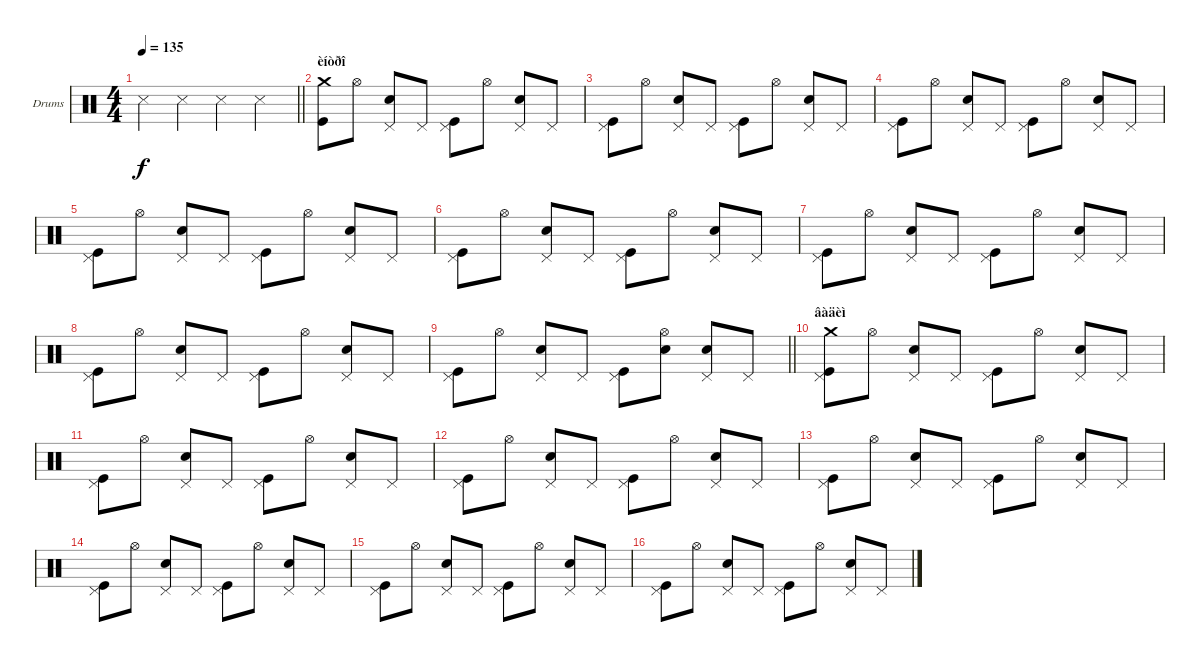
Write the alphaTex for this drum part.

\bracketExtendMode groupsimilarinstruments
\firstSystemTrackNameOrientation horizontal
\otherSystemsTrackNameOrientation horizontal
\track ("Drumkit" "Drums") {instrument percussion}
\staff {score}
\articulation defaults
\ts (4 4)
\beaming (8 2 2 2 2)
\tempo 135
\clef neutral
\barLineRight lightlight
\ks c "Snare (side stick) 3".4{dy f} "Snare (side stick) 3".4 "Snare (side stick) 3".4 "Snare (side stick) 3".4
|
\section ("" "èíòðî")
("Crash medium (hit)" "Kick (hit)").8 "Hi-Hat (open)".8 ("Pedal Hi-Hat (hit)" "Snare (hit) 2").8 "Pedal Hi-Hat (hit)".8 ("Pedal Hi-Hat (hit)" "Kick (hit)").8 "Hi-Hat (open)".8 ("Pedal Hi-Hat (hit)" "Snare (hit) 2").8 "Pedal Hi-Hat (hit)".8 |
("Pedal Hi-Hat (hit)" "Kick (hit)").8 "Hi-Hat (open)".8 ("Pedal Hi-Hat (hit)" "Snare (hit) 2").8 "Pedal Hi-Hat (hit)".8 ("Pedal Hi-Hat (hit)" "Kick (hit)").8 "Hi-Hat (open)".8 ("Pedal Hi-Hat (hit)" "Snare (hit) 2").8 "Pedal Hi-Hat (hit)".8 |
("Pedal Hi-Hat (hit)" "Kick (hit)").8 "Hi-Hat (open)".8 ("Pedal Hi-Hat (hit)" "Snare (hit) 2").8 "Pedal Hi-Hat (hit)".8 ("Pedal Hi-Hat (hit)" "Kick (hit)").8 "Hi-Hat (open)".8 ("Pedal Hi-Hat (hit)" "Snare (hit) 2").8 "Pedal Hi-Hat (hit)".8 |
("Pedal Hi-Hat (hit)" "Kick (hit)").8 "Hi-Hat (open)".8 ("Pedal Hi-Hat (hit)" "Snare (hit) 2").8 "Pedal Hi-Hat (hit)".8 ("Pedal Hi-Hat (hit)" "Kick (hit)").8 "Hi-Hat (open)".8 ("Pedal Hi-Hat (hit)" "Snare (hit) 2").8 "Pedal Hi-Hat (hit)".8 |
("Pedal Hi-Hat (hit)" "Kick (hit)").8 "Hi-Hat (open)".8 ("Pedal Hi-Hat (hit)" "Snare (hit) 2").8 "Pedal Hi-Hat (hit)".8 ("Pedal Hi-Hat (hit)" "Kick (hit)").8 "Hi-Hat (open)".8 ("Pedal Hi-Hat (hit)" "Snare (hit) 2").8 "Pedal Hi-Hat (hit)".8 |
("Pedal Hi-Hat (hit)" "Kick (hit)").8 "Hi-Hat (open)".8 ("Pedal Hi-Hat (hit)" "Snare (hit) 2").8 "Pedal Hi-Hat (hit)".8 ("Pedal Hi-Hat (hit)" "Kick (hit)").8 "Hi-Hat (open)".8 ("Pedal Hi-Hat (hit)" "Snare (hit) 2").8 "Pedal Hi-Hat (hit)".8 |
("Pedal Hi-Hat (hit)" "Kick (hit)").8 "Hi-Hat (open)".8 ("Pedal Hi-Hat (hit)" "Snare (hit) 2").8 "Pedal Hi-Hat (hit)".8 ("Pedal Hi-Hat (hit)" "Kick (hit)").8 "Hi-Hat (open)".8 ("Pedal Hi-Hat (hit)" "Snare (hit) 2").8 "Pedal Hi-Hat (hit)".8 |
\barLineRight lightlight
("Pedal Hi-Hat (hit)" "Kick (hit)").8 "Hi-Hat (open)".8 ("Pedal Hi-Hat (hit)" "Snare (hit) 2").8 "Pedal Hi-Hat (hit)".8 ("Pedal Hi-Hat (hit)" "Kick (hit)").8 ("Hi-Hat (open)" "Snare (hit) 2").8 ("Pedal Hi-Hat (hit)" "Snare (hit) 2").8 "Pedal Hi-Hat (hit)".8 |
\section ("" "âàäèì")
("Pedal Hi-Hat (hit)" "Kick (hit)" "Crash medium (hit)").8 "Hi-Hat (open)".8 ("Pedal Hi-Hat (hit)" "Snare (hit) 2").8 "Pedal Hi-Hat (hit)".8 ("Pedal Hi-Hat (hit)" "Kick (hit)").8 "Hi-Hat (open)".8 ("Pedal Hi-Hat (hit)" "Snare (hit) 2").8 "Pedal Hi-Hat (hit)".8 |
("Pedal Hi-Hat (hit)" "Kick (hit)").8 "Hi-Hat (open)".8 ("Pedal Hi-Hat (hit)" "Snare (hit) 2").8 "Pedal Hi-Hat (hit)".8 ("Pedal Hi-Hat (hit)" "Kick (hit)").8 "Hi-Hat (open)".8 ("Pedal Hi-Hat (hit)" "Snare (hit) 2").8 "Pedal Hi-Hat (hit)".8 |
("Pedal Hi-Hat (hit)" "Kick (hit)").8 "Hi-Hat (open)".8 ("Pedal Hi-Hat (hit)" "Snare (hit) 2").8 "Pedal Hi-Hat (hit)".8 ("Pedal Hi-Hat (hit)" "Kick (hit)").8 "Hi-Hat (open)".8 ("Pedal Hi-Hat (hit)" "Snare (hit) 2").8 "Pedal Hi-Hat (hit)".8 |
("Pedal Hi-Hat (hit)" "Kick (hit)").8 "Hi-Hat (open)".8 ("Pedal Hi-Hat (hit)" "Snare (hit) 2").8 "Pedal Hi-Hat (hit)".8 ("Pedal Hi-Hat (hit)" "Kick (hit)").8 "Hi-Hat (open)".8 ("Pedal Hi-Hat (hit)" "Snare (hit) 2").8 "Pedal Hi-Hat (hit)".8 |
("Pedal Hi-Hat (hit)" "Kick (hit)").8 "Hi-Hat (open)".8 ("Pedal Hi-Hat (hit)" "Snare (hit) 2").8 "Pedal Hi-Hat (hit)".8 ("Pedal Hi-Hat (hit)" "Kick (hit)").8 "Hi-Hat (open)".8 ("Pedal Hi-Hat (hit)" "Snare (hit) 2").8 "Pedal Hi-Hat (hit)".8 |
("Pedal Hi-Hat (hit)" "Kick (hit)").8 "Hi-Hat (open)".8 ("Pedal Hi-Hat (hit)" "Snare (hit) 2").8 "Pedal Hi-Hat (hit)".8 ("Pedal Hi-Hat (hit)" "Kick (hit)").8 "Hi-Hat (open)".8 ("Pedal Hi-Hat (hit)" "Snare (hit) 2").8 "Pedal Hi-Hat (hit)".8 |
("Pedal Hi-Hat (hit)" "Kick (hit)").8 "Hi-Hat (open)".8 ("Pedal Hi-Hat (hit)" "Snare (hit) 2").8 "Pedal Hi-Hat (hit)".8 ("Pedal Hi-Hat (hit)" "Kick (hit)").8 "Hi-Hat (open)".8 ("Pedal Hi-Hat (hit)" "Snare (hit) 2").8 "Pedal Hi-Hat (hit)".8
